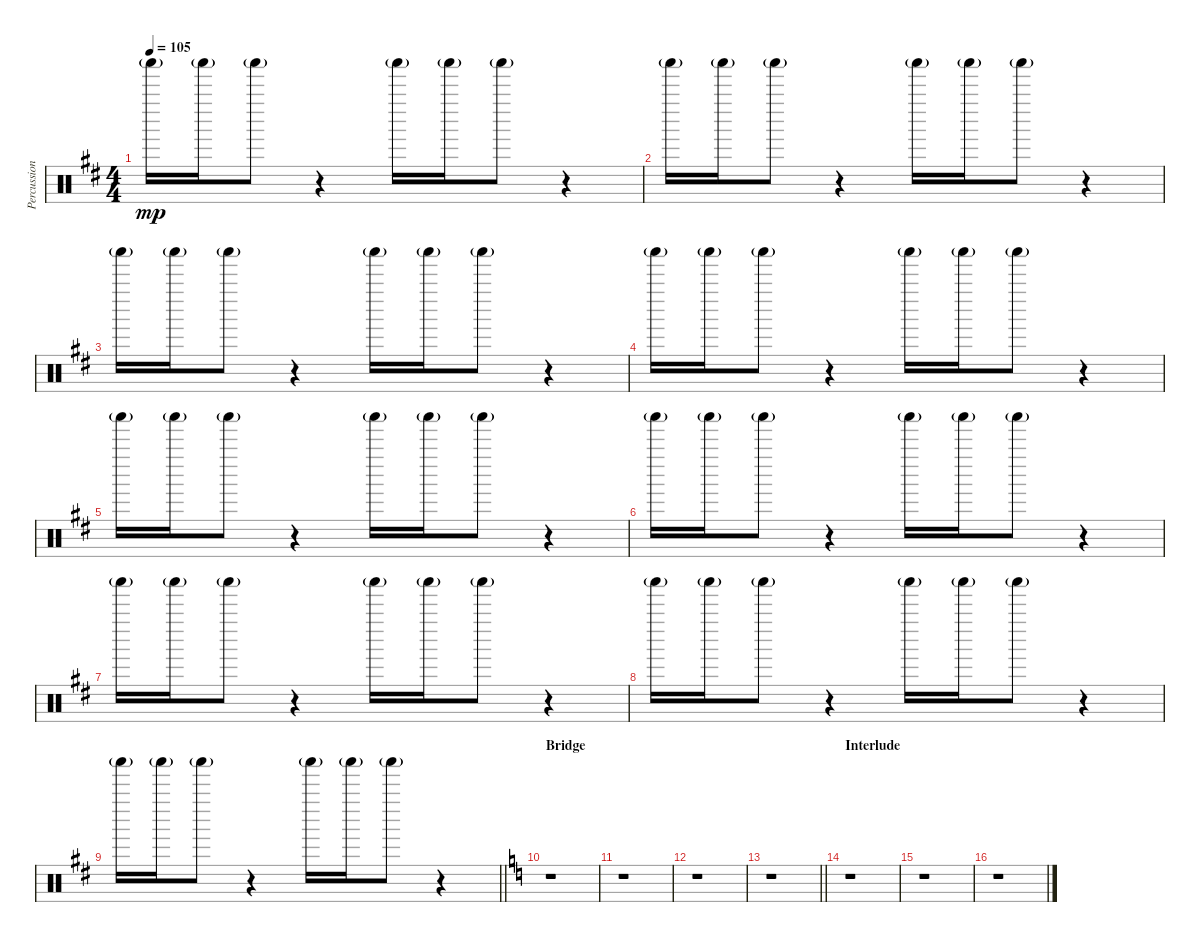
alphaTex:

\track ("Percussion" "Percussion") {instrument percussion}
\staff {score}
\articulation defaults
\ts (4 4)
\tempo 105
\clef neutral
\ks bminor "Shaker (hit)"{g}.16{dy mp} "Shaker (hit)"{g}.16 "Shaker (hit)"{g}.8
r.4 "Shaker (hit)"{g}.16 "Shaker (hit)"{g}.16 "Shaker (hit)"{g}.8 r.4 |
"Shaker (hit)"{g}.16 "Shaker (hit)"{g}.16 "Shaker (hit)"{g}.8 r.4 "Shaker (hit)"{g}.16 "Shaker (hit)"{g}.16 "Shaker (hit)"{g}.8 r.4 |
"Shaker (hit)"{g}.16 "Shaker (hit)"{g}.16 "Shaker (hit)"{g}.8 r.4 "Shaker (hit)"{g}.16 "Shaker (hit)"{g}.16 "Shaker (hit)"{g}.8 r.4 |
"Shaker (hit)"{g}.16 "Shaker (hit)"{g}.16 "Shaker (hit)"{g}.8 r.4 "Shaker (hit)"{g}.16 "Shaker (hit)"{g}.16 "Shaker (hit)"{g}.8 r.4 |
"Shaker (hit)"{g}.16 "Shaker (hit)"{g}.16 "Shaker (hit)"{g}.8 r.4 "Shaker (hit)"{g}.16 "Shaker (hit)"{g}.16 "Shaker (hit)"{g}.8 r.4 |
"Shaker (hit)"{g}.16 "Shaker (hit)"{g}.16 "Shaker (hit)"{g}.8 r.4 "Shaker (hit)"{g}.16 "Shaker (hit)"{g}.16 "Shaker (hit)"{g}.8 r.4 |
"Shaker (hit)"{g}.16 "Shaker (hit)"{g}.16 "Shaker (hit)"{g}.8 r.4 "Shaker (hit)"{g}.16 "Shaker (hit)"{g}.16 "Shaker (hit)"{g}.8 r.4 |
"Shaker (hit)"{g}.16 "Shaker (hit)"{g}.16 "Shaker (hit)"{g}.8 r.4 "Shaker (hit)"{g}.16 "Shaker (hit)"{g}.16 "Shaker (hit)"{g}.8 r.4 |
\barLineRight lightlight "Shaker (hit)"{g}.16 "Shaker (hit)"{g}.16 "Shaker (hit)"{g}.8
r.4 "Shaker (hit)"{g}.16 "Shaker (hit)"{g}.16 "Shaker (hit)"{g}.8 r.4 |
\section ("" "Bridge")
\ks aminor
r.1 |
r.1 |
r.1 |
\barLineRight lightlight
r.1 |
\section ("" "Interlude")
r.1 |
r.1 |
r.1
